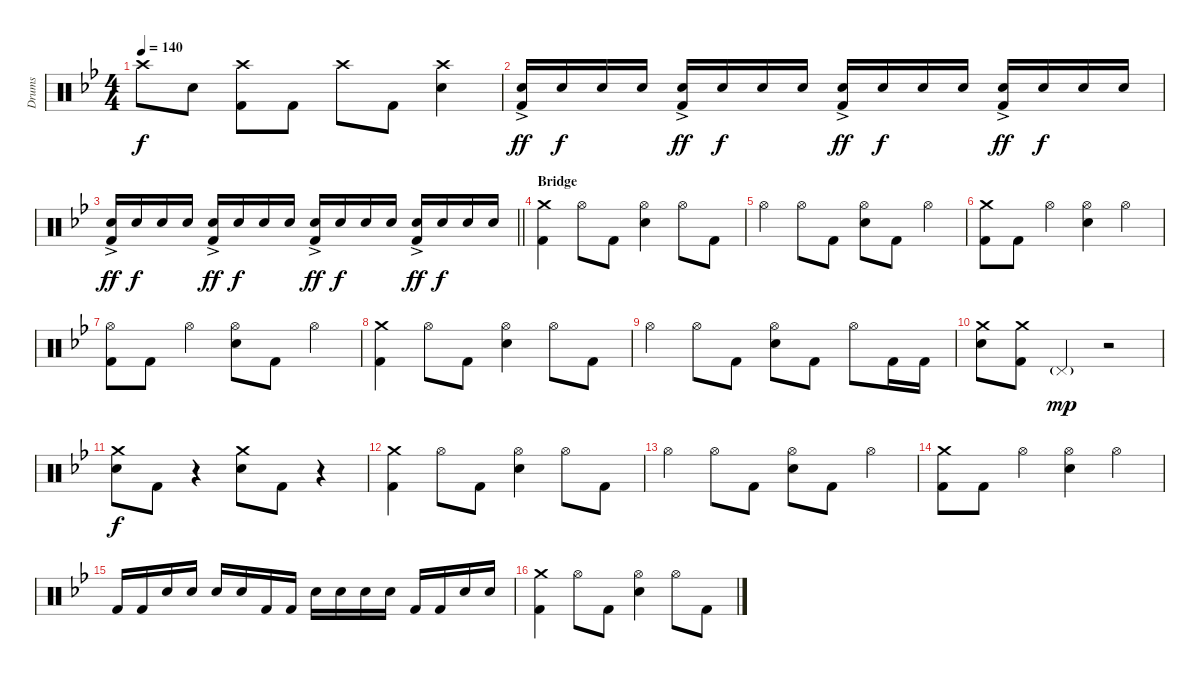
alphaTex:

\track ("Drums" "Drums") {instrument percussion}
\staff {score}
\articulation defaults
\ts (4 4)
\tempo 140
\clef neutral
\ks gminor "Crash high (hit)".8{dy f} "Electric Snare (hit)".8
("Crash high (hit)" "Kick (hit) 2").8 "Kick (hit) 2".8 "Crash high (hit)".8 "Kick (hit) 2".8 ("Crash high (hit)" "Electric Snare (hit)").4 |
("Electric Snare (hit)"{ac} "Kick (hit) 2").16{dy ff volume 7} "Electric Snare (hit)".16{dy f volume 15} "Electric Snare (hit)".16 "Electric Snare (hit)".16 ("Electric Snare (hit)"{ac} "Kick (hit) 2").16{dy ff} "Electric Snare (hit)".16{dy f} "Electric Snare (hit)".16 "Electric Snare (hit)".16 ("Electric Snare (hit)"{ac} "Kick (hit) 2").16{dy ff} "Electric Snare (hit)".16{dy f} "Electric Snare (hit)".16 "Electric Snare (hit)".16 ("Electric Snare (hit)"{ac} "Kick (hit) 2").16{dy ff} "Electric Snare (hit)".16{dy f} "Electric Snare (hit)".16 "Electric Snare (hit)".16 |
\barLineRight lightlight
("Electric Snare (hit)"{ac} "Kick (hit) 2").16{dy ff} "Electric Snare (hit)".16{dy f} "Electric Snare (hit)".16 "Electric Snare (hit)".16 ("Electric Snare (hit)"{ac} "Kick (hit) 2").16{dy ff} "Electric Snare (hit)".16{dy f} "Electric Snare (hit)".16 "Electric Snare (hit)".16 ("Electric Snare (hit)"{ac} "Kick (hit) 2").16{dy ff} "Electric Snare (hit)".16{dy f} "Electric Snare (hit)".16 "Electric Snare (hit)".16 ("Electric Snare (hit)"{ac} "Kick (hit) 2").16{dy ff} "Electric Snare (hit)".16{dy f} "Electric Snare (hit)".16 "Electric Snare (hit)".16 |
\section ("" "Bridge")
("Crash medium (hit)" "Kick (hit) 2").4 "Hi-Hat (open)".8 "Kick (hit) 2".8 ("Hi-Hat (open)" "Electric Snare (hit)").4 "Hi-Hat (open)".8 "Kick (hit) 2".8 |
"Hi-Hat (open)".4 "Hi-Hat (open)".8 "Kick (hit) 2".8 ("Hi-Hat (open)" "Electric Snare (hit)").8 "Kick (hit) 2".8 "Hi-Hat (open)".4 |
("Crash medium (hit)" "Kick (hit) 2").8 "Kick (hit) 2".8 "Hi-Hat (open)".4 ("Hi-Hat (open)" "Electric Snare (hit)").4 "Hi-Hat (open)".4 |
("Hi-Hat (open)" "Kick (hit) 2").8 "Kick (hit) 2".8 "Hi-Hat (open)".4 ("Hi-Hat (open)" "Electric Snare (hit)").8 "Kick (hit) 2".8 "Hi-Hat (open)".4 |
("Crash medium (hit)" "Kick (hit) 2").4 "Hi-Hat (open)".8 "Kick (hit) 2".8 ("Hi-Hat (open)" "Electric Snare (hit)").4 "Hi-Hat (open)".8 "Kick (hit) 2".8 |
"Hi-Hat (open)".4 "Hi-Hat (open)".8 "Kick (hit) 2".8 ("Hi-Hat (open)" "Electric Snare (hit)").8 "Kick (hit) 2".8 "Hi-Hat (open)".8 "Kick (hit) 2".16 "Kick (hit) 2".16 |
("Crash medium (hit)" "Electric Snare (hit)").8 ("Crash medium (hit)" "Kick (hit) 2").8 "Pedal Hi-Hat (hit)"{g}.4{dy mp} r.2 |
("Crash medium (hit)" "Electric Snare (hit)").8{dy f} "Kick (hit) 2".8 r.4 ("Crash medium (hit)" "Electric Snare (hit)").8 "Kick (hit) 2".8 r.4 |
("Crash medium (hit)" "Kick (hit) 2").4 "Hi-Hat (open)".8 "Kick (hit) 2".8 ("Hi-Hat (open)" "Electric Snare (hit)").4 "Hi-Hat (open)".8 "Kick (hit) 2".8 |
"Hi-Hat (open)".4 "Hi-Hat (open)".8 "Kick (hit) 2".8 ("Hi-Hat (open)" "Electric Snare (hit)").8 "Kick (hit) 2".8 "Hi-Hat (open)".4 |
("Crash medium (hit)" "Kick (hit) 2").8 "Kick (hit) 2".8 "Hi-Hat (open)".4 ("Hi-Hat (open)" "Electric Snare (hit)").4 "Hi-Hat (open)".4 |
"Kick (hit) 2".16 "Kick (hit) 2".16 "Electric Snare (hit)".16 "Electric Snare (hit)".16 "Electric Snare (hit)".16 "Electric Snare (hit)".16 "Kick (hit) 2".16 "Kick (hit) 2".16 "Electric Snare (hit)".16 "Electric Snare (hit)".16 "Electric Snare (hit)".16 "Electric Snare (hit)".16 "Kick (hit) 2".16 "Kick (hit) 2".16 "Electric Snare (hit)".16 "Electric Snare (hit)".16 |
("Crash medium (hit)" "Kick (hit) 2").4 "Hi-Hat (open)".8 "Kick (hit) 2".8 ("Hi-Hat (open)" "Electric Snare (hit)").4 "Hi-Hat (open)".8 "Kick (hit) 2".8
